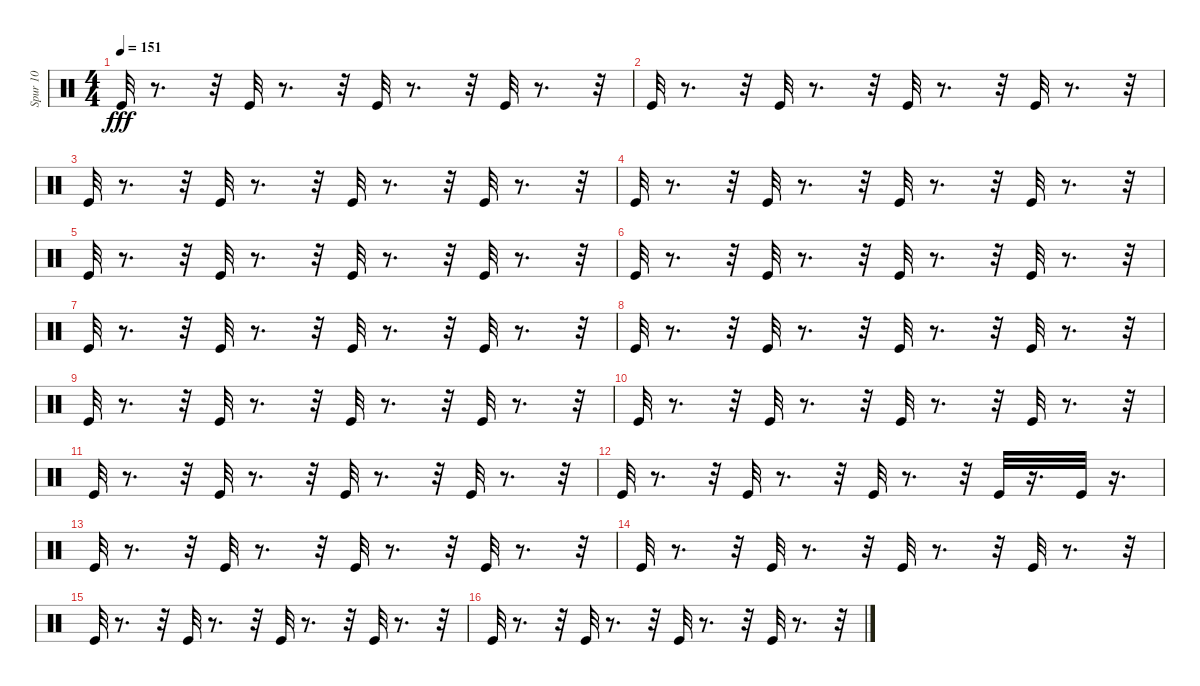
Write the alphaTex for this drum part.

\track ("Spur 10" "Spur 10") {instrument percussion}
\staff {score}
\articulation defaults
\ts (4 4)
\tempo 151
\clef neutral
\ks c "Kick (hit)".32{dy fff}
r.8{d} r.32 "Kick (hit)".32 r.8{d} r.32 "Kick (hit)".32 r.8{d} r.32 "Kick (hit)".32 r.8{d} r.32 |
"Kick (hit)".32 r.8{d} r.32 "Kick (hit)".32 r.8{d} r.32 "Kick (hit)".32 r.8{d} r.32 "Kick (hit)".32 r.8{d} r.32 |
"Kick (hit)".32 r.8{d} r.32 "Kick (hit)".32 r.8{d} r.32 "Kick (hit)".32 r.8{d} r.32 "Kick (hit)".32 r.8{d} r.32 |
"Kick (hit)".32 r.8{d} r.32 "Kick (hit)".32 r.8{d} r.32 "Kick (hit)".32 r.8{d} r.32 "Kick (hit)".32 r.8{d} r.32 |
"Kick (hit)".32 r.8{d} r.32 "Kick (hit)".32 r.8{d} r.32 "Kick (hit)".32 r.8{d} r.32 "Kick (hit)".32 r.8{d} r.32 |
"Kick (hit)".32 r.8{d} r.32 "Kick (hit)".32 r.8{d} r.32 "Kick (hit)".32 r.8{d} r.32 "Kick (hit)".32 r.8{d} r.32 |
"Kick (hit)".32 r.8{d} r.32 "Kick (hit)".32 r.8{d} r.32 "Kick (hit)".32 r.8{d} r.32 "Kick (hit)".32 r.8{d} r.32 |
"Kick (hit)".32 r.8{d} r.32 "Kick (hit)".32 r.8{d} r.32 "Kick (hit)".32 r.8{d} r.32 "Kick (hit)".32 r.8{d} r.32 |
"Kick (hit)".32 r.8{d} r.32 "Kick (hit)".32 r.8{d} r.32 "Kick (hit)".32 r.8{d} r.32 "Kick (hit)".32 r.8{d} r.32 |
"Kick (hit)".32 r.8{d} r.32 "Kick (hit)".32 r.8{d} r.32 "Kick (hit)".32 r.8{d} r.32 "Kick (hit)".32 r.8{d} r.32 |
"Kick (hit)".32 r.8{d} r.32 "Kick (hit)".32 r.8{d} r.32 "Kick (hit)".32 r.8{d} r.32 "Kick (hit)".32 r.8{d} r.32 |
"Kick (hit)".32 r.8{d} r.32 "Kick (hit)".32 r.8{d} r.32 "Kick (hit)".32 r.8{d} r.32 "Kick (hit)".32 r.16{d} "Kick (hit)".32 r.16{d} |
"Kick (hit)".32 r.8{d} r.32 "Kick (hit)".32 r.8{d} r.32 "Kick (hit)".32 r.8{d} r.32 "Kick (hit)".32 r.8{d} r.32 |
"Kick (hit)".32 r.8{d} r.32 "Kick (hit)".32 r.8{d} r.32 "Kick (hit)".32 r.8{d} r.32 "Kick (hit)".32 r.8{d} r.32 |
"Kick (hit)".32 r.8{d} r.32 "Kick (hit)".32 r.8{d} r.32 "Kick (hit)".32 r.8{d} r.32 "Kick (hit)".32 r.8{d} r.32 |
"Kick (hit)".32 r.8{d} r.32 "Kick (hit)".32 r.8{d} r.32 "Kick (hit)".32 r.8{d} r.32 "Kick (hit)".32 r.8{d} r.32
